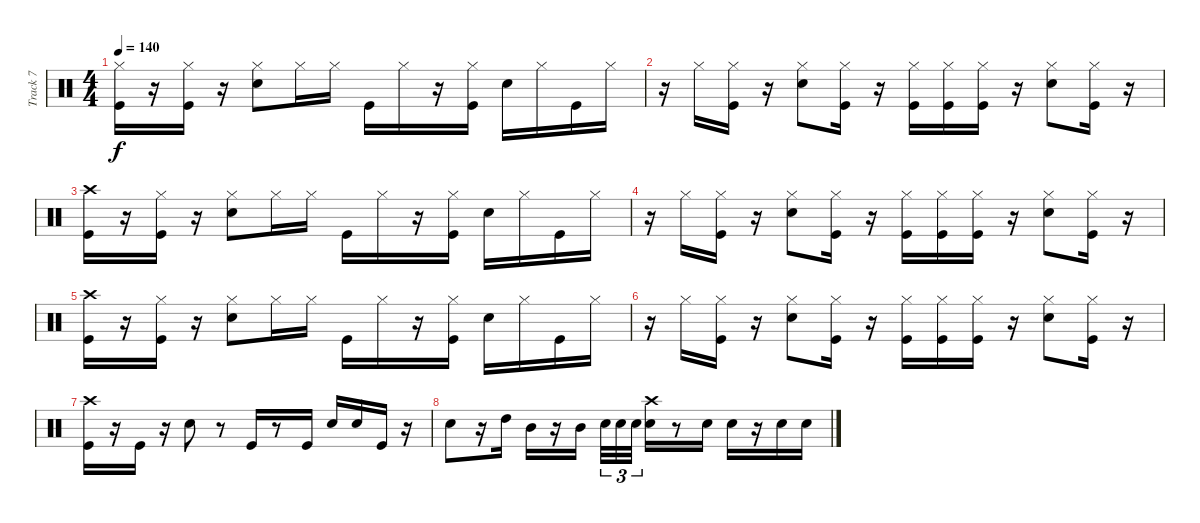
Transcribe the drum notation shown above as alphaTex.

\track ("Track 7" "Track 7") {instrument percussion}
\staff {score}
\articulation defaults
\ts (4 4)
\tempo 140
\clef neutral
\ks c
("Hi-Hat (closed)" "Kick (hit)").16{dy f} r.16 ("Hi-Hat (closed)" "Kick (hit)").16 r.16 ("Hi-Hat (closed)" "Electric Snare (hit)").8 "Hi-Hat (closed)".16 "Hi-Hat (closed)".16 "Kick (hit)".16 "Hi-Hat (closed)".16 r.16 ("Kick (hit)" "Hi-Hat (closed)").16 "Electric Snare (hit)".16 "Hi-Hat (closed)".16 "Kick (hit)".16 "Hi-Hat (closed)".16 |
r.16 "Hi-Hat (closed)".16 ("Hi-Hat (closed)" "Kick (hit)").16 r.16 ("Hi-Hat (closed)" "Electric Snare (hit)").8 ("Hi-Hat (closed)" "Kick (hit)").16 r.16 ("Hi-Hat (closed)" "Kick (hit)").16 ("Kick (hit)" "Hi-Hat (closed)").16 ("Hi-Hat (closed)" "Kick (hit)").16 r.16 ("Hi-Hat (closed)" "Electric Snare (hit)").8 ("Hi-Hat (closed)" "Kick (hit)").16 r.16 |
("Kick (hit)" "Crash high (hit)").16 r.16 ("Hi-Hat (closed)" "Kick (hit)").16 r.16 ("Hi-Hat (closed)" "Electric Snare (hit)").8 "Hi-Hat (closed)".16 "Hi-Hat (closed)".16 "Kick (hit)".16 "Hi-Hat (closed)".16 r.16 ("Kick (hit)" "Hi-Hat (closed)").16 "Electric Snare (hit)".16 "Hi-Hat (closed)".16 "Kick (hit)".16 "Hi-Hat (closed)".16 |
r.16 "Hi-Hat (closed)".16 ("Hi-Hat (closed)" "Kick (hit)").16 r.16 ("Hi-Hat (closed)" "Electric Snare (hit)").8 ("Hi-Hat (closed)" "Kick (hit)").16 r.16 ("Hi-Hat (closed)" "Kick (hit)").16 ("Kick (hit)" "Hi-Hat (closed)").16 ("Hi-Hat (closed)" "Kick (hit)").16 r.16 ("Hi-Hat (closed)" "Electric Snare (hit)").8 ("Hi-Hat (closed)" "Kick (hit)").16 r.16 |
("Kick (hit)" "Crash high (hit)").16 r.16 ("Hi-Hat (closed)" "Kick (hit)").16 r.16 ("Hi-Hat (closed)" "Electric Snare (hit)").8 "Hi-Hat (closed)".16 "Hi-Hat (closed)".16 "Kick (hit)".16 "Hi-Hat (closed)".16 r.16 ("Kick (hit)" "Hi-Hat (closed)").16 "Electric Snare (hit)".16 "Hi-Hat (closed)".16 "Kick (hit)".16 "Hi-Hat (closed)".16 |
r.16 "Hi-Hat (closed)".16 ("Hi-Hat (closed)" "Kick (hit)").16 r.16 ("Hi-Hat (closed)" "Electric Snare (hit)").8 ("Hi-Hat (closed)" "Kick (hit)").16 r.16 ("Hi-Hat (closed)" "Kick (hit)").16 ("Kick (hit)" "Hi-Hat (closed)").16 ("Hi-Hat (closed)" "Kick (hit)").16 r.16 ("Hi-Hat (closed)" "Electric Snare (hit)").8 ("Hi-Hat (closed)" "Kick (hit)").16 r.16 |
("Crash high (hit)" "Kick (hit)").16 r.16 "Kick (hit)".16 r.16 "Electric Snare (hit)".8 r.8 "Kick (hit)".16 r.8 "Kick (hit)".16 "Electric Snare (hit)".16 "Electric Snare (hit)".16 "Kick (hit)".16 r.16 |
"Electric Snare (hit)".8 r.16 "High Tom (hit)".16 "Mid Tom (hit)".16 r.16 "Mid Tom (hit)".16{beam splitsecondary} "Electric Snare (hit)".32{tu (3 2)} "Electric Snare (hit)".32{tu (3 2)} "Electric Snare (hit)".32{tu (3 2)} ("Crash high (hit)" "Electric Snare (hit)").16 r.8 "Electric Snare (hit)".16 "Electric Snare (hit)".16 r.16 "Electric Snare (hit)".16 "Electric Snare (hit)".16
